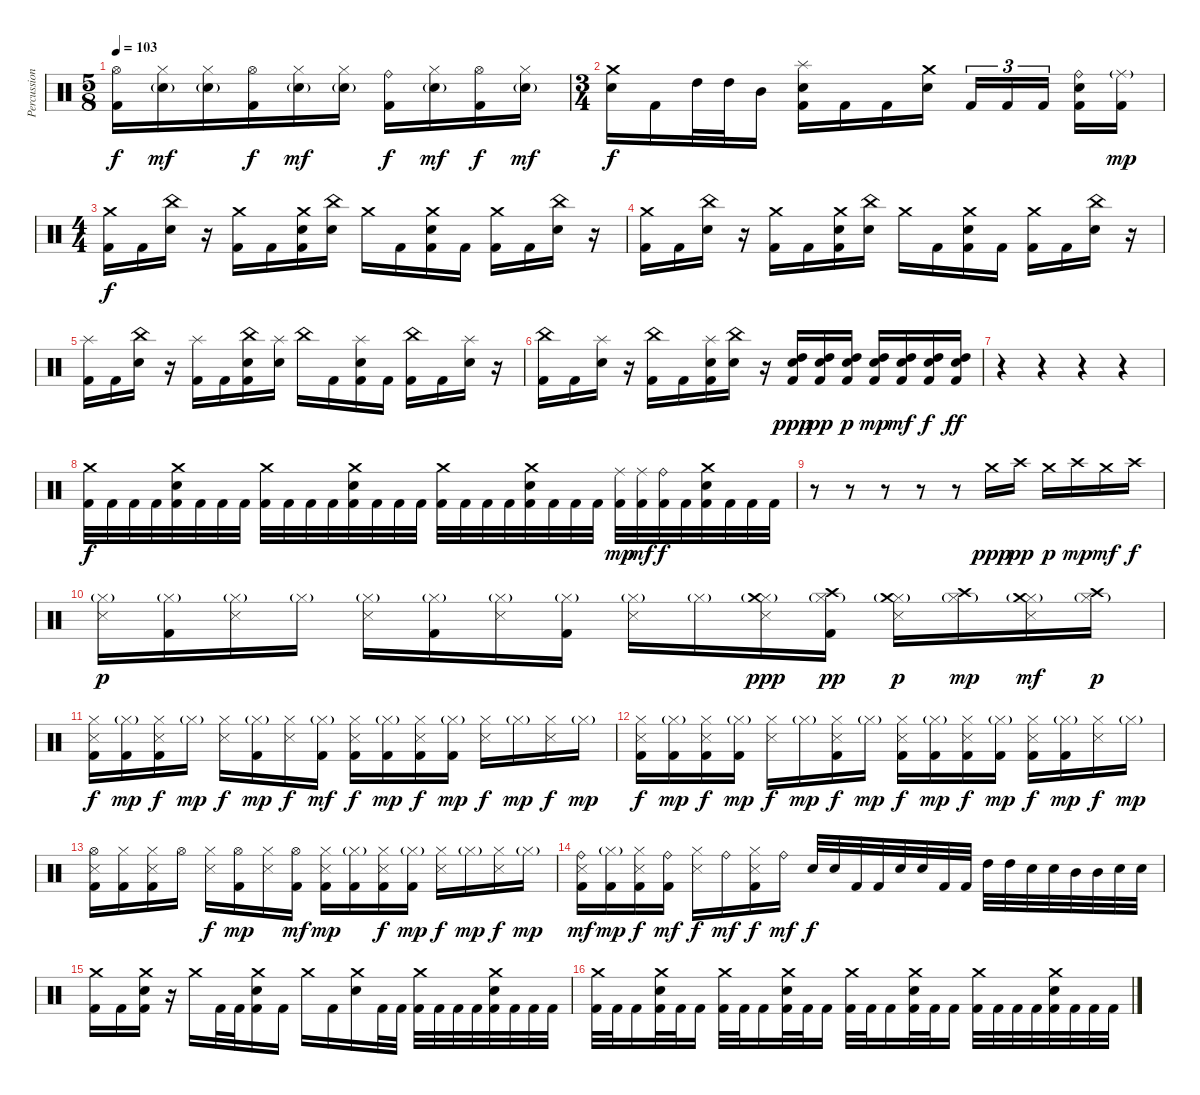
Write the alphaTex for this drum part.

\track ("Percussion" "Percussion") {instrument percussion}
\staff {score}
\articulation defaults
\ts (5 8)
\tempo 103
\clef neutral
\ks c
("Hi-Hat (open)" "Kick (hit) 2").16{dy f} ("Hi-Hat (closed)" "Electric Snare (hit)"{g}).16{dy mf} ("Hi-Hat (closed)" "Electric Snare (hit)"{g}).16 ("Hi-Hat (open)" "Kick (hit) 2").16{dy f} ("Hi-Hat (closed)" "Electric Snare (hit)"{g}).16{dy mf} ("Hi-Hat (closed)" "Electric Snare (hit)"{g}).16 ("Ride (bell)" "Kick (hit) 2").16{dy f} ("Hi-Hat (closed)" "Electric Snare (hit)"{g}).16{dy mf} ("Hi-Hat (open)" "Kick (hit) 2").16{dy f} ("Hi-Hat (closed)" "Electric Snare (hit)"{g}).16{dy mf} |
\ts (3 4)
("Crash medium (hit)" "Electric Snare (hit)").16{dy f} "Kick (hit) 2".16 "High Tom (hit)".32 "High Tom (hit)".32 "Mid Tom (hit)".16 ("Splash (hit)" "Electric Snare (hit)" "Kick (hit) 2").16 "Kick (hit) 2".16 "Kick (hit) 2".16 ("Crash medium (hit)" "Electric Snare (hit)").16 "Kick (hit) 2".16{tu (3 2)} "Kick (hit) 2".16{tu (3 2)} "Kick (hit) 2".16{tu (3 2) beam splitsecondary} ("Ride (bell)" "Electric Snare (hit)" "Kick (hit) 2").16 ("Ride (middle)"{g} "Kick (hit) 2").16{dy mp} |
\ts (4 4)
("Crash medium (hit)" "Kick (hit) 2").16{dy f} "Kick (hit) 2".16 ("China (hit)" "Electric Snare (hit)").16 r.16 ("Crash medium (hit)" "Kick (hit) 2").16 "Kick (hit) 2".16 ("Crash medium (hit)" "Electric Snare (hit)" "Kick (hit) 2").16 ("China (hit)" "Electric Snare (hit)").16 "Crash medium (hit)".16 "Kick (hit) 2".16 ("Crash medium (hit)" "Electric Snare (hit)" "Kick (hit) 2").16 "Kick (hit) 2".16 ("Crash medium (hit)" "Kick (hit) 2").16 "Kick (hit) 2".16 ("China (hit)" "Electric Snare (hit)").16 r.16 |
("Crash medium (hit)" "Kick (hit) 2").16 "Kick (hit) 2".16 ("China (hit)" "Electric Snare (hit)").16 r.16 ("Crash medium (hit)" "Kick (hit) 2").16 "Kick (hit) 2".16 ("Crash medium (hit)" "Electric Snare (hit)" "Kick (hit) 2").16 ("China (hit)" "Electric Snare (hit)").16 "Crash medium (hit)".16 "Kick (hit) 2".16 ("Crash medium (hit)" "Electric Snare (hit)" "Kick (hit) 2").16 "Kick (hit) 2".16 ("Crash medium (hit)" "Kick (hit) 2").16 "Kick (hit) 2".16 ("China (hit)" "Electric Snare (hit)").16 r.16 |
("Splash (hit)" "Kick (hit) 2").16 "Kick (hit) 2".16 ("China (hit)" "Electric Snare (hit)").16 r.16 ("Splash (hit)" "Kick (hit) 2").16 "Kick (hit) 2".16 ("China (hit)" "Electric Snare (hit)" "Kick (hit) 2").16 ("Splash (hit)" "Electric Snare (hit)").16 "China (hit)".16 "Kick (hit) 2".16 ("Splash (hit)" "Electric Snare (hit)" "Kick (hit) 2").16 "Kick (hit) 2".16 ("China (hit)" "Kick (hit) 2").16 "Kick (hit) 2".16 ("Splash (hit)" "Electric Snare (hit)").16 r.16 |
("China (hit)" "Kick (hit) 2").16 "Kick (hit) 2".16 ("Splash (hit)" "Electric Snare (hit)").16 r.16 ("China (hit)" "Kick (hit) 2").16 "Kick (hit) 2".16 ("Splash (hit)" "Electric Snare (hit)" "Kick (hit) 2").16 ("China (hit)" "Electric Snare (hit)").16 r.16 ("High Tom (hit)" "Electric Snare (hit)" "Kick (hit) 2").16{dy ppp} ("High Tom (hit)" "Electric Snare (hit)" "Kick (hit) 2").16{dy pp} ("High Tom (hit)" "Electric Snare (hit)" "Kick (hit) 2").16{dy p} ("High Tom (hit)" "Electric Snare (hit)" "Kick (hit) 2").16{dy mp} ("High Tom (hit)" "Electric Snare (hit)" "Kick (hit) 2").16{dy mf} ("High Tom (hit)" "Electric Snare (hit)" "Kick (hit) 2").16{dy f} ("High Tom (hit)" "Electric Snare (hit)" "Kick (hit) 2").16{dy ff} |
r.4 r.4 r.4 r.4 |
("Crash medium (hit)" "Kick (hit) 2").32{dy f} "Kick (hit) 2".32 "Kick (hit) 2".32 "Kick (hit) 2".32 ("Crash medium (hit)" "Electric Snare (hit)" "Kick (hit) 2").32 "Kick (hit) 2".32 "Kick (hit) 2".32 "Kick (hit) 2".32 ("Crash medium (hit)" "Kick (hit) 2").32 "Kick (hit) 2".32 "Kick (hit) 2".32 "Kick (hit) 2".32 ("Crash medium (hit)" "Electric Snare (hit)" "Kick (hit) 2").32 "Kick (hit) 2".32 "Kick (hit) 2".32 "Kick (hit) 2".32 ("Crash medium (hit)" "Kick (hit) 2").32 "Kick (hit) 2".32 "Kick (hit) 2".32 "Kick (hit) 2".32 ("Crash medium (hit)" "Electric Snare (hit)" "Kick (hit) 2").32 "Kick (hit) 2".32 "Kick (hit) 2".32 "Kick (hit) 2".32 ("Ride (middle)" "Kick (hit) 2").32{dy mp} ("Ride (middle)" "Kick (hit) 2").32{dy mf} ("Ride (bell)" "Kick (hit) 2").32{dy f} "Kick (hit) 2".32 ("Crash medium (hit)" "Electric Snare (hit)" "Kick (hit) 2").32 "Kick (hit) 2".32 "Kick (hit) 2".32 "Kick (hit) 2".32 |
r.8 r.8 r.8 r.8 r.8 "Crash medium (hit)".16{dy ppp} "Crash high (hit)".16{dy pp} "Crash medium (hit)".16{dy p} "Crash high (hit)".16{dy mp} "Crash medium (hit)".16{dy mf} "Crash high (hit)".16{dy f} |
("Hi-Hat (closed)"{g} "Snare (side stick) 3").16{dy p} ("Hi-Hat (closed)"{g} "Kick (hit) 2").16 ("Hi-Hat (closed)"{g} "Snare (side stick) 3").16 "Hi-Hat (closed)"{g}.16 ("Hi-Hat (closed)"{g} "Snare (side stick) 3").16 ("Hi-Hat (closed)"{g} "Kick (hit) 2").16 ("Hi-Hat (closed)"{g} "Snare (side stick) 3").16 ("Hi-Hat (closed)"{g} "Kick (hit) 2").16 ("Hi-Hat (closed)"{g} "Snare (side stick) 3").16 "Hi-Hat (closed)"{g}.16 ("Hi-Hat (closed)"{g} "Crash medium (hit)" "Snare (side stick) 3").16{dy ppp} ("Hi-Hat (closed)"{g} "Crash high (hit)" "Kick (hit) 2").16{dy pp} ("Hi-Hat (closed)"{g} "Crash medium (hit)" "Snare (side stick) 3").16{dy p} ("Hi-Hat (closed)"{g} "Crash high (hit)").16{dy mp} ("Hi-Hat (closed)"{g} "Crash medium (hit)" "Snare (side stick) 3").16{dy mf} ("Hi-Hat (closed)"{g} "Crash high (hit)").16{dy p} |
("Hi-Hat (closed)" "Snare (side stick) 3" "Kick (hit) 2").16{dy f} ("Hi-Hat (closed)"{g} "Kick (hit) 2").16{dy mp} ("Hi-Hat (closed)" "Snare (side stick) 3" "Kick (hit) 2").16{dy f} "Hi-Hat (closed)"{g}.16{dy mp} ("Hi-Hat (closed)" "Snare (side stick) 3").16{dy f} ("Hi-Hat (closed)"{g} "Kick (hit) 2").16{dy mp} ("Hi-Hat (closed)" "Snare (side stick) 3").16{dy f} ("Hi-Hat (closed)"{g} "Kick (hit) 2").16{dy mf} ("Hi-Hat (closed)" "Snare (side stick) 3" "Kick (hit) 2").16{dy f} ("Hi-Hat (closed)"{g} "Kick (hit) 2").16{dy mp} ("Hi-Hat (closed)" "Snare (side stick) 3" "Kick (hit) 2").16{dy f} ("Hi-Hat (closed)"{g} "Kick (hit) 2").16{dy mp} ("Hi-Hat (closed)" "Snare (side stick) 3").16{dy f} "Hi-Hat (closed)"{g}.16{dy mp} ("Hi-Hat (closed)" "Snare (side stick) 3").16{dy f} "Hi-Hat (closed)"{g}.16{dy mp} |
("Hi-Hat (closed)" "Snare (side stick) 3" "Kick (hit) 2").16{dy f} ("Hi-Hat (closed)"{g} "Kick (hit) 2").16{dy mp} ("Hi-Hat (closed)" "Snare (side stick) 3" "Kick (hit) 2").16{dy f} ("Hi-Hat (closed)"{g} "Kick (hit) 2").16{dy mp} ("Hi-Hat (closed)" "Snare (side stick) 3").16{dy f} "Hi-Hat (closed)"{g}.16{dy mp} ("Hi-Hat (closed)" "Snare (side stick) 3" "Kick (hit) 2").16{dy f} "Hi-Hat (closed)"{g}.16{dy mp} ("Hi-Hat (closed)" "Snare (side stick) 3" "Kick (hit) 2").16{dy f} ("Hi-Hat (closed)"{g} "Kick (hit) 2").16{dy mp} ("Hi-Hat (closed)" "Snare (side stick) 3" "Kick (hit) 2").16{dy f} ("Hi-Hat (closed)"{g} "Kick (hit) 2").16{dy mp} ("Hi-Hat (closed)" "Snare (side stick) 3" "Kick (hit) 2").16{dy f} ("Hi-Hat (closed)"{g} "Kick (hit) 2").16{dy mp} ("Hi-Hat (closed)" "Snare (side stick) 3").16{dy f} "Hi-Hat (closed)"{g}.16{dy mp} |
("Hi-Hat (open)" "Snare (side stick) 3" "Kick (hit) 2").16 ("Hi-Hat (closed)" "Kick (hit) 2").16 ("Hi-Hat (closed)" "Snare (side stick) 3" "Kick (hit) 2").16 "Hi-Hat (open)".16 ("Hi-Hat (closed)" "Snare (side stick) 3").16{dy f} ("Hi-Hat (open)" "Kick (hit) 2").16{dy mp} ("Hi-Hat (closed)" "Snare (side stick) 3").16 ("Hi-Hat (open)" "Kick (hit) 2").16{dy mf} ("Hi-Hat (closed)" "Snare (side stick) 3" "Kick (hit) 2").16{dy mp} ("Hi-Hat (closed)"{g} "Kick (hit) 2").16 ("Hi-Hat (closed)" "Snare (side stick) 3" "Kick (hit) 2").16{dy f} ("Hi-Hat (closed)"{g} "Kick (hit) 2").16{dy mp} ("Hi-Hat (closed)" "Snare (side stick) 3").16{dy f} "Hi-Hat (closed)"{g}.16{dy mp} ("Hi-Hat (closed)" "Snare (side stick) 3").16{dy f} "Hi-Hat (closed)"{g}.16{dy mp} |
("Ride (bell)" "Snare (side stick) 3" "Kick (hit) 2").16{dy mf} ("Hi-Hat (closed)"{g} "Kick (hit) 2").16{dy mp} ("Hi-Hat (closed)" "Snare (side stick) 3" "Kick (hit) 2").16{dy f} ("Ride (bell)" "Kick (hit) 2").16{dy mf} ("Hi-Hat (closed)" "Snare (side stick) 3").16{dy f} "Ride (bell)".16{dy mf} ("Hi-Hat (closed)" "Snare (side stick) 3" "Kick (hit) 2").16{dy f} "Ride (bell)".16{dy mf} "Electric Snare (hit)".32{dy f} "Electric Snare (hit)".32 "Kick (hit) 2".32 "Kick (hit) 2".32 "Electric Snare (hit)".32 "Electric Snare (hit)".32 "Kick (hit) 2".32 "Kick (hit) 2".32 "High Tom (hit)".32 "High Tom (hit)".32 "Electric Snare (hit)".32 "Electric Snare (hit)".32 "Mid Tom (hit)".32 "Mid Tom (hit)".32 "Electric Snare (hit)".32 "Electric Snare (hit)".32 |
("Crash medium (hit)" "Kick (hit) 2").16 "Kick (hit) 2".16 ("Crash medium (hit)" "Electric Snare (hit)" "Kick (hit) 2").16 r.16 "Crash medium (hit)".16 "Kick (hit) 2".32 "Kick (hit) 2".32 ("Crash medium (hit)" "Electric Snare (hit)" "Kick (hit) 2").16 "Kick (hit) 2".16 "Crash medium (hit)".16 "Kick (hit) 2".16 ("Crash medium (hit)" "Electric Snare (hit)").16 "Kick (hit) 2".32 "Kick (hit) 2".32 ("Crash medium (hit)" "Kick (hit) 2").32 "Kick (hit) 2".32 "Kick (hit) 2".32 "Kick (hit) 2".32 ("Crash medium (hit)" "Electric Snare (hit)" "Kick (hit) 2").32 "Kick (hit) 2".32 "Kick (hit) 2".32 "Kick (hit) 2".32 |
("Crash medium (hit)" "Kick (hit) 2").32 "Kick (hit) 2".32 "Kick (hit) 2".16 ("Crash medium (hit)" "Electric Snare (hit)" "Kick (hit) 2").32 "Kick (hit) 2".32 "Kick (hit) 2".16 ("Crash medium (hit)" "Kick (hit) 2").32 "Kick (hit) 2".32 "Kick (hit) 2".16 ("Crash medium (hit)" "Electric Snare (hit)" "Kick (hit) 2").32 "Kick (hit) 2".32 "Kick (hit) 2".16 ("Crash medium (hit)" "Kick (hit) 2").32 "Kick (hit) 2".32 "Kick (hit) 2".16 ("Crash medium (hit)" "Electric Snare (hit)" "Kick (hit) 2").32 "Kick (hit) 2".32 "Kick (hit) 2".16 ("Crash medium (hit)" "Kick (hit) 2").32 "Kick (hit) 2".32 "Kick (hit) 2".32 "Kick (hit) 2".32 ("Crash medium (hit)" "Electric Snare (hit)" "Kick (hit) 2").32 "Kick (hit) 2".32 "Kick (hit) 2".32 "Kick (hit) 2".32
